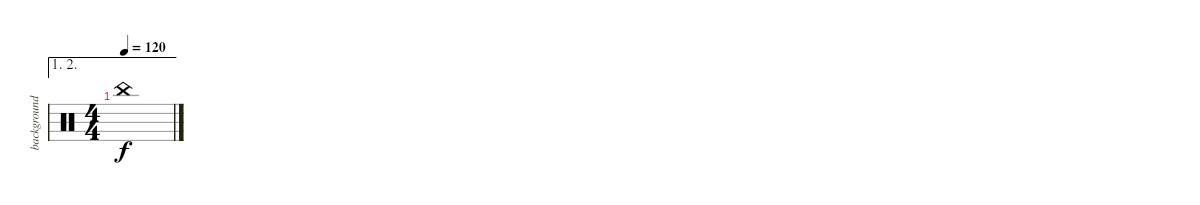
\track ("background drum" "background") {instrument percussion}
\staff {score}
\articulation defaults
\ae (1 2)
\ts (4 4)
\tempo 120
\clef neutral
\ks c "China (hit)".1{dy f}
